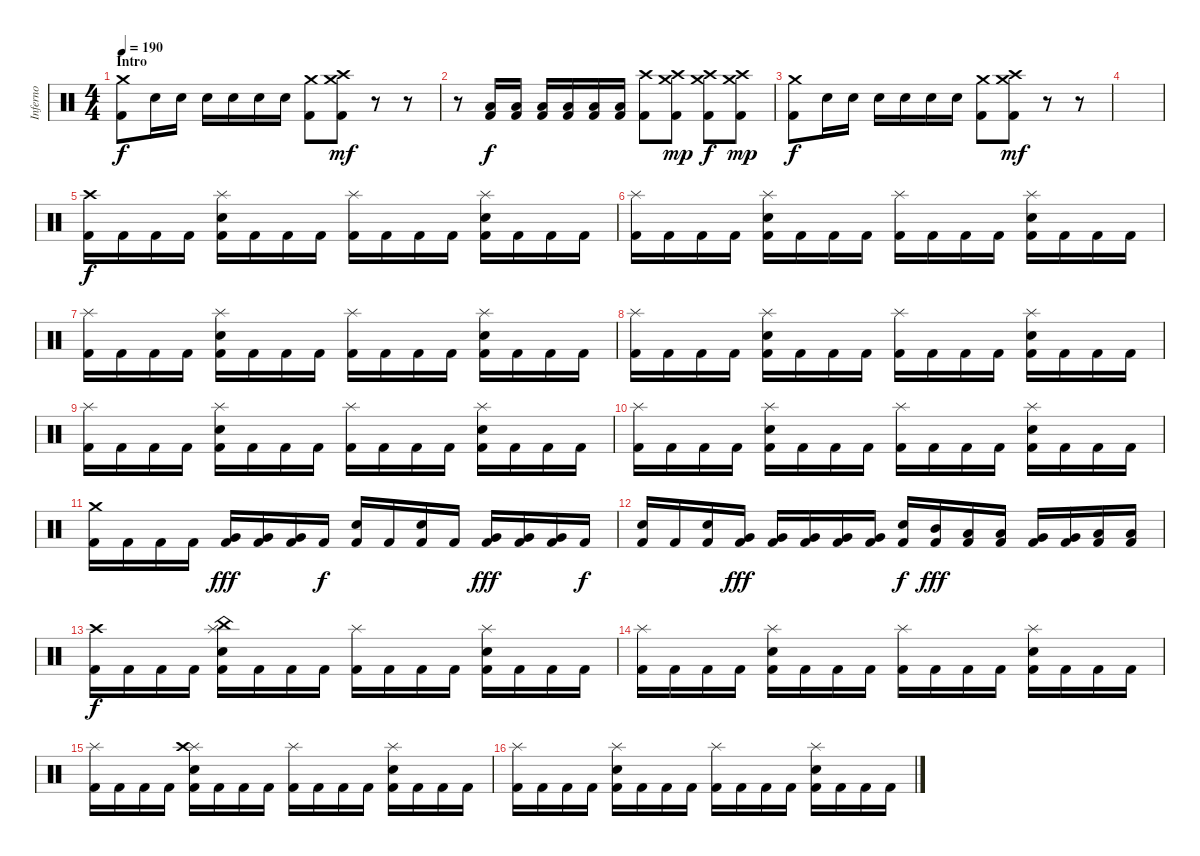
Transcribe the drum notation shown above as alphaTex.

\track ("Inferno" "Inferno") {instrument percussion}
\staff {score}
\articulation defaults
\ts (4 4)
\section ("" "Intro")
\tempo 190
\clef neutral
\ks c
("Crash medium (hit)" "Kick (hit) 2").8{dy f} "Snare (hit) 2".16 "Snare (hit) 2".16 "Snare (hit) 2".16 "Snare (hit) 2".16 "Snare (hit) 2".16 "Snare (hit) 2".16 ("Crash medium (hit)" "Kick (hit) 2").8 ("Crash medium (hit)" "Crash high (hit)" "Kick (hit) 2").8{dy mf} r.8{volume 0} r.8 |
r.8 ("Low Floor Tom (hit)" "Kick (hit) 2").16{dy f volume 13} ("Low Floor Tom (hit)" "Kick (hit) 2").16 ("Low Floor Tom (hit)" "Kick (hit) 2").16 ("Low Floor Tom (hit)" "Kick (hit) 2").16 ("Low Floor Tom (hit)" "Kick (hit) 2").16 ("Low Floor Tom (hit)" "Kick (hit) 2").16 ("Crash high (hit)" "Kick (hit) 2").8 ("Crash high (hit)" "Crash medium (hit)" "Kick (hit) 2").8{dy mp} ("Crash high (hit)" "Crash medium (hit)" "Kick (hit) 2").8{dy f} ("Crash high (hit)" "Crash medium (hit)" "Kick (hit) 2").8{dy mp} |
("Crash medium (hit)" "Kick (hit) 2").8{dy f} "Snare (hit) 2".16 "Snare (hit) 2".16 "Snare (hit) 2".16 "Snare (hit) 2".16 "Snare (hit) 2".16 "Snare (hit) 2".16 ("Crash medium (hit)" "Kick (hit) 2").8 ("Crash medium (hit)" "Crash high (hit)" "Kick (hit) 2").8{dy mf} r.8{volume 0} r.8 |
|
\section ("" "")
("Crash high (hit)" "Kick (hit) 2").16{dy f volume 13} "Kick (hit) 2".16 "Kick (hit) 2".16 "Kick (hit) 2".16 ("Splash (hit)" "Snare (hit) 2" "Kick (hit) 2").16 "Kick (hit) 2".16 "Kick (hit) 2".16 "Kick (hit) 2".16 ("Splash (hit)" "Kick (hit) 2").16 "Kick (hit) 2".16 "Kick (hit) 2".16 "Kick (hit) 2".16 ("Splash (hit)" "Snare (hit) 2" "Kick (hit) 2").16 "Kick (hit) 2".16 "Kick (hit) 2".16 "Kick (hit) 2".16 |
("Splash (hit)" "Kick (hit) 2").16 "Kick (hit) 2".16 "Kick (hit) 2".16 "Kick (hit) 2".16 ("Splash (hit)" "Snare (hit) 2" "Kick (hit) 2").16 "Kick (hit) 2".16 "Kick (hit) 2".16 "Kick (hit) 2".16 ("Splash (hit)" "Kick (hit) 2").16 "Kick (hit) 2".16 "Kick (hit) 2".16 "Kick (hit) 2".16 ("Splash (hit)" "Snare (hit) 2" "Kick (hit) 2").16 "Kick (hit) 2".16 "Kick (hit) 2".16 "Kick (hit) 2".16 |
("Splash (hit)" "Kick (hit) 2").16 "Kick (hit) 2".16 "Kick (hit) 2".16 "Kick (hit) 2".16 ("Splash (hit)" "Snare (hit) 2" "Kick (hit) 2").16 "Kick (hit) 2".16 "Kick (hit) 2".16 "Kick (hit) 2".16 ("Splash (hit)" "Kick (hit) 2").16 "Kick (hit) 2".16 "Kick (hit) 2".16 "Kick (hit) 2".16 ("Splash (hit)" "Snare (hit) 2" "Kick (hit) 2").16 "Kick (hit) 2".16 "Kick (hit) 2".16 "Kick (hit) 2".16 |
("Splash (hit)" "Kick (hit) 2").16 "Kick (hit) 2".16 "Kick (hit) 2".16 "Kick (hit) 2".16 ("Splash (hit)" "Snare (hit) 2" "Kick (hit) 2").16 "Kick (hit) 2".16 "Kick (hit) 2".16 "Kick (hit) 2".16 ("Splash (hit)" "Kick (hit) 2").16 "Kick (hit) 2".16 "Kick (hit) 2".16 "Kick (hit) 2".16 ("Splash (hit)" "Snare (hit) 2" "Kick (hit) 2").16 "Kick (hit) 2".16 "Kick (hit) 2".16 "Kick (hit) 2".16 |
("Splash (hit)" "Kick (hit) 2").16 "Kick (hit) 2".16 "Kick (hit) 2".16 "Kick (hit) 2".16 ("Splash (hit)" "Snare (hit) 2" "Kick (hit) 2").16 "Kick (hit) 2".16 "Kick (hit) 2".16 "Kick (hit) 2".16 ("Splash (hit)" "Kick (hit) 2").16 "Kick (hit) 2".16 "Kick (hit) 2".16 "Kick (hit) 2".16 ("Splash (hit)" "Snare (hit) 2" "Kick (hit) 2").16 "Kick (hit) 2".16 "Kick (hit) 2".16 "Kick (hit) 2".16 |
("Splash (hit)" "Kick (hit) 2").16 "Kick (hit) 2".16 "Kick (hit) 2".16 "Kick (hit) 2".16 ("Splash (hit)" "Snare (hit) 2" "Kick (hit) 2").16 "Kick (hit) 2".16 "Kick (hit) 2".16 "Kick (hit) 2".16 ("Splash (hit)" "Kick (hit) 2").16 "Kick (hit) 2".16 "Kick (hit) 2".16 "Kick (hit) 2".16 ("Splash (hit)" "Snare (hit) 2" "Kick (hit) 2").16 "Kick (hit) 2".16 "Kick (hit) 2".16 "Kick (hit) 2".16 |
("Crash medium (hit)" "Kick (hit) 2").16 "Kick (hit) 2".16 "Kick (hit) 2".16 "Kick (hit) 2".16 ("Very Low Tom (hit)" "Kick (hit) 2").16{dy fff} ("Very Low Tom (hit)" "Kick (hit) 2").16 ("Very Low Tom (hit)" "Kick (hit) 2").16 "Kick (hit) 2".16{dy f} ("Snare (hit) 2" "Kick (hit) 2").16 "Kick (hit) 2".16 ("Snare (hit) 2" "Kick (hit) 2").16 "Kick (hit) 2".16 ("Very Low Tom (hit)" "Kick (hit) 2").16{dy fff} ("Very Low Tom (hit)" "Kick (hit) 2").16 ("Very Low Tom (hit)" "Kick (hit) 2").16 "Kick (hit) 2".16{dy f} |
("Snare (hit) 2" "Kick (hit) 2").16 "Kick (hit) 2".16 ("Snare (hit) 2" "Kick (hit) 2").16 ("Very Low Tom (hit)" "Kick (hit) 2").16{dy fff} ("Very Low Tom (hit)" "Kick (hit) 2").16 ("Very Low Tom (hit)" "Kick (hit) 2").16 ("Very Low Tom (hit)" "Kick (hit) 2").16 ("Very Low Tom (hit)" "Kick (hit) 2").16 ("Snare (hit) 2" "Kick (hit) 2").16{dy f} ("Mid Tom (hit)" "Kick (hit) 2").16{dy fff} ("Low Tom (hit)" "Kick (hit) 2").16 ("Low Tom (hit)" "Kick (hit) 2").16 ("Very Low Tom (hit)" "Kick (hit) 2").16 ("Very Low Tom (hit)" "Kick (hit) 2").16 ("Low Floor Tom (hit)" "Kick (hit) 2").16 ("Low Floor Tom (hit)" "Kick (hit) 2").16 |
("Crash high (hit)" "Kick (hit) 2").16{dy f} "Kick (hit) 2".16 "Kick (hit) 2".16 "Kick (hit) 2".16 ("Splash (hit)" "China (hit)" "Snare (hit) 2" "Kick (hit) 2").16 "Kick (hit) 2".16 "Kick (hit) 2".16 "Kick (hit) 2".16 ("Splash (hit)" "Kick (hit) 2").16 "Kick (hit) 2".16 "Kick (hit) 2".16 "Kick (hit) 2".16 ("Splash (hit)" "Snare (hit) 2" "Kick (hit) 2").16 "Kick (hit) 2".16 "Kick (hit) 2".16 "Kick (hit) 2".16 |
("Splash (hit)" "Kick (hit) 2").16 "Kick (hit) 2".16 "Kick (hit) 2".16 "Kick (hit) 2".16 ("Splash (hit)" "Snare (hit) 2" "Kick (hit) 2").16 "Kick (hit) 2".16 "Kick (hit) 2".16 "Kick (hit) 2".16 ("Splash (hit)" "Kick (hit) 2").16 "Kick (hit) 2".16 "Kick (hit) 2".16 "Kick (hit) 2".16 ("Splash (hit)" "Snare (hit) 2" "Kick (hit) 2").16 "Kick (hit) 2".16 "Kick (hit) 2".16 "Kick (hit) 2".16 |
("Splash (hit)" "Kick (hit) 2").16 "Kick (hit) 2".16 "Kick (hit) 2".16 "Kick (hit) 2".16 ("Splash (hit)" "Crash high (hit)" "Snare (hit) 2" "Kick (hit) 2").16 "Kick (hit) 2".16 "Kick (hit) 2".16 "Kick (hit) 2".16 ("Splash (hit)" "Kick (hit) 2").16 "Kick (hit) 2".16 "Kick (hit) 2".16 "Kick (hit) 2".16 ("Splash (hit)" "Snare (hit) 2" "Kick (hit) 2").16 "Kick (hit) 2".16 "Kick (hit) 2".16 "Kick (hit) 2".16 |
("Splash (hit)" "Kick (hit) 2").16 "Kick (hit) 2".16 "Kick (hit) 2".16 "Kick (hit) 2".16 ("Splash (hit)" "Snare (hit) 2" "Kick (hit) 2").16 "Kick (hit) 2".16 "Kick (hit) 2".16 "Kick (hit) 2".16 ("Splash (hit)" "Kick (hit) 2").16 "Kick (hit) 2".16 "Kick (hit) 2".16 "Kick (hit) 2".16 ("Splash (hit)" "Snare (hit) 2" "Kick (hit) 2").16 "Kick (hit) 2".16 "Kick (hit) 2".16 "Kick (hit) 2".16
